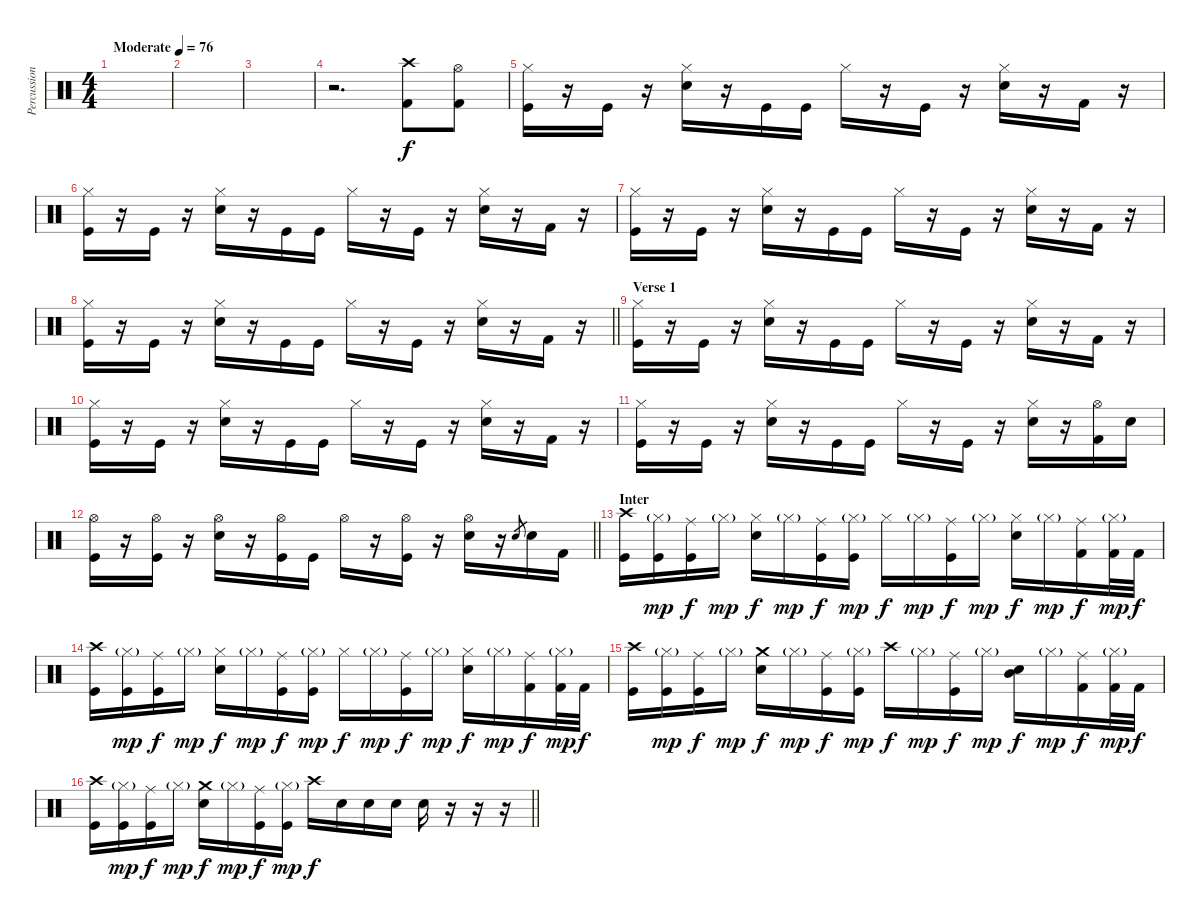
\track ("Percussion" "Percussion") {instrument percussion}
\staff {score}
\articulation defaults
\ts (4 4)
\tempo (76 "Moderate")
\clef neutral
\ks c
|
|
|
r.2{d} ("Crash high (hit)" "Kick (hit) 2").8 ("Hi-Hat (open)" "Kick (hit) 2").8 |
("Hi-Hat (closed)" "Kick (hit)").16 r.16 "Kick (hit)".16 r.16 ("Hi-Hat (closed)" "Electric Snare (hit)").16 r.16 "Kick (hit)".16 "Kick (hit)".16 "Hi-Hat (closed)".16 r.16 "Kick (hit)".16 r.16 ("Hi-Hat (closed)" "Electric Snare (hit)").16 r.16 "Kick (hit) 2".16 r.16 |
("Hi-Hat (closed)" "Kick (hit)").16 r.16 "Kick (hit)".16 r.16 ("Hi-Hat (closed)" "Electric Snare (hit)").16 r.16 "Kick (hit)".16 "Kick (hit)".16 "Hi-Hat (closed)".16 r.16 "Kick (hit)".16 r.16 ("Hi-Hat (closed)" "Electric Snare (hit)").16 r.16 "Kick (hit) 2".16 r.16 |
("Hi-Hat (closed)" "Kick (hit)").16 r.16 "Kick (hit)".16 r.16 ("Hi-Hat (closed)" "Electric Snare (hit)").16 r.16 "Kick (hit)".16 "Kick (hit)".16 "Hi-Hat (closed)".16 r.16 "Kick (hit)".16 r.16 ("Hi-Hat (closed)" "Electric Snare (hit)").16 r.16 "Kick (hit) 2".16 r.16 |
\barLineRight lightlight
("Hi-Hat (closed)" "Kick (hit)").16 r.16 "Kick (hit)".16 r.16 ("Hi-Hat (closed)" "Electric Snare (hit)").16 r.16 "Kick (hit)".16 "Kick (hit)".16 "Hi-Hat (closed)".16 r.16 "Kick (hit)".16 r.16 ("Hi-Hat (closed)" "Electric Snare (hit)").16 r.16 "Kick (hit) 2".16 r.16 |
\section ("" "Verse 1")
("Hi-Hat (closed)" "Kick (hit)").16 r.16 "Kick (hit)".16 r.16 ("Hi-Hat (closed)" "Electric Snare (hit)").16 r.16 "Kick (hit)".16 "Kick (hit)".16 "Hi-Hat (closed)".16 r.16 "Kick (hit)".16 r.16 ("Hi-Hat (closed)" "Electric Snare (hit)").16 r.16 "Kick (hit) 2".16 r.16 |
("Hi-Hat (closed)" "Kick (hit)").16 r.16 "Kick (hit)".16 r.16 ("Hi-Hat (closed)" "Electric Snare (hit)").16 r.16 "Kick (hit)".16 "Kick (hit)".16 "Hi-Hat (closed)".16 r.16 "Kick (hit)".16 r.16 ("Hi-Hat (closed)" "Electric Snare (hit)").16 r.16 "Kick (hit) 2".16 r.16 |
("Hi-Hat (closed)" "Kick (hit)").16 r.16 "Kick (hit)".16 r.16 ("Hi-Hat (closed)" "Electric Snare (hit)").16 r.16 "Kick (hit)".16 "Kick (hit)".16 "Hi-Hat (closed)".16 r.16 "Kick (hit)".16 r.16 ("Hi-Hat (closed)" "Electric Snare (hit)").16 r.16 ("Hi-Hat (open)" "Kick (hit) 2").16 "Electric Snare (hit)".16 |
\barLineRight lightlight
("Hi-Hat (open)" "Kick (hit)").16 r.16 ("Hi-Hat (open)" "Kick (hit)").16 r.16 ("Hi-Hat (open)" "Electric Snare (hit)").16 r.16 ("Hi-Hat (open)" "Kick (hit)").16 "Kick (hit)".16 "Hi-Hat (open)".16 r.16 ("Hi-Hat (open)" "Kick (hit)").16 r.16 ("Hi-Hat (open)" "Electric Snare (hit)").16 r.16 "Electric Snare (hit)".8{gr} "Electric Snare (hit)".16 "Kick (hit) 2".16 |
\section ("" "Inter")
("Crash high (hit)" "Kick (hit)").16 ("Hi-Hat (closed)"{g} "Kick (hit)").16{dy mp} ("Ride (middle)" "Kick (hit)").16{dy f} "Hi-Hat (closed)"{g}.16{dy mp} ("Hi-Hat (closed)" "Electric Snare (hit)").16{dy f} "Hi-Hat (closed)"{g}.16{dy mp} ("Ride (middle)" "Kick (hit)").16{dy f} ("Hi-Hat (closed)"{g} "Kick (hit)").16{dy mp} "Hi-Hat (closed)".16{dy f} "Hi-Hat (closed)"{g}.16{dy mp} ("Ride (middle)" "Kick (hit)").16{dy f} "Hi-Hat (closed)"{g}.16{dy mp} ("Hi-Hat (closed)" "Electric Snare (hit)").16{dy f} "Hi-Hat (closed)"{g}.16{dy mp} ("Ride (middle)" "Kick (hit) 2").16{dy f} ("Hi-Hat (closed)"{g} "Kick (hit) 2").32{dy mp} "Kick (hit) 2".32{dy f} |
("Crash high (hit)" "Kick (hit)").16 ("Hi-Hat (closed)"{g} "Kick (hit)").16{dy mp} ("Ride (middle)" "Kick (hit)").16{dy f} "Hi-Hat (closed)"{g}.16{dy mp} ("Hi-Hat (closed)" "Electric Snare (hit)").16{dy f} "Hi-Hat (closed)"{g}.16{dy mp} ("Ride (middle)" "Kick (hit)").16{dy f} ("Hi-Hat (closed)"{g} "Kick (hit)").16{dy mp} "Hi-Hat (closed)".16{dy f} "Hi-Hat (closed)"{g}.16{dy mp} ("Ride (middle)" "Kick (hit)").16{dy f} "Hi-Hat (closed)"{g}.16{dy mp} ("Hi-Hat (closed)" "Electric Snare (hit)").16{dy f} "Hi-Hat (closed)"{g}.16{dy mp} ("Ride (middle)" "Kick (hit) 2").16{dy f} ("Hi-Hat (closed)"{g} "Kick (hit) 2").32{dy mp} "Kick (hit) 2".32{dy f} |
("Crash high (hit)" "Kick (hit)").16 ("Hi-Hat (closed)"{g} "Kick (hit)").16{dy mp} ("Ride (middle)" "Kick (hit)").16{dy f} "Hi-Hat (closed)"{g}.16{dy mp} ("Crash medium (hit)" "Electric Snare (hit)").16{dy f} "Hi-Hat (closed)"{g}.16{dy mp} ("Ride (middle)" "Kick (hit)").16{dy f} ("Hi-Hat (closed)"{g} "Kick (hit)").16{dy mp} "Crash high (hit)".16{dy f} "Hi-Hat (closed)"{g}.16{dy mp} ("Ride (middle)" "Kick (hit)").16{dy f} "Hi-Hat (closed)"{g}.16{dy mp} ("Mid Tom (hit)" "Electric Snare (hit)").16{dy f} "Hi-Hat (closed)"{g}.16{dy mp} ("Ride (middle)" "Kick (hit) 2").16{dy f} ("Hi-Hat (closed)"{g} "Kick (hit) 2").32{dy mp} "Kick (hit) 2".32{dy f} |
\barLineRight lightlight
("Crash high (hit)" "Kick (hit)").16 ("Hi-Hat (closed)"{g} "Kick (hit)").16{dy mp} ("Ride (middle)" "Kick (hit)").16{dy f} "Hi-Hat (closed)"{g}.16{dy mp} ("Crash medium (hit)" "Electric Snare (hit)").16{dy f} "Hi-Hat (closed)"{g}.16{dy mp} ("Ride (middle)" "Kick (hit)").16{dy f} ("Hi-Hat (closed)"{g} "Kick (hit)").16{dy mp} "Crash high (hit)".16{dy f} "Electric Snare (hit)".16 "Electric Snare (hit)".16 "Electric Snare (hit)".16 "Electric Snare (hit)".16 r.16 r.16 r.16
